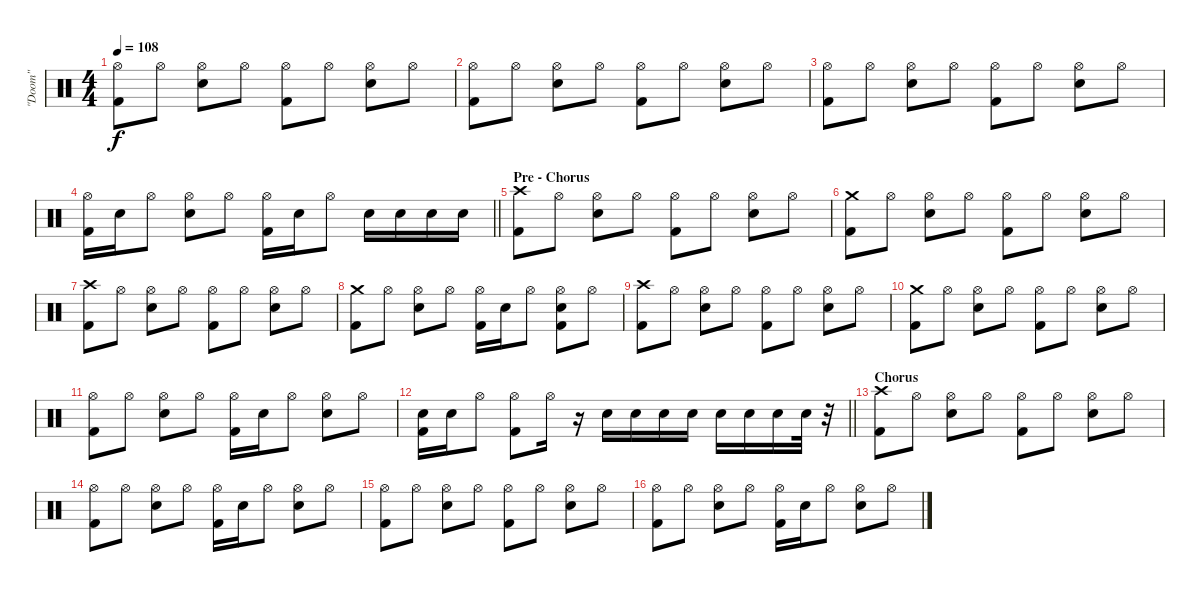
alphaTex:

\track ("\"Doom\"" "\"Doom\"") {instrument percussion}
\staff {score}
\articulation defaults
\ts (4 4)
\tempo 108
\clef neutral
\ks c
("Hi-Hat (open)" "Kick (hit) 2").8{dy f} "Hi-Hat (open)".8 ("Hi-Hat (open)" "Snare (hit) 2").8 "Hi-Hat (open)".8 ("Hi-Hat (open)" "Kick (hit) 2").8 "Hi-Hat (open)".8 ("Hi-Hat (open)" "Snare (hit) 2").8 "Hi-Hat (open)".8 |
("Hi-Hat (open)" "Kick (hit) 2").8 "Hi-Hat (open)".8 ("Hi-Hat (open)" "Snare (hit) 2").8 "Hi-Hat (open)".8 ("Hi-Hat (open)" "Kick (hit) 2").8 "Hi-Hat (open)".8 ("Hi-Hat (open)" "Snare (hit) 2").8 "Hi-Hat (open)".8 |
("Hi-Hat (open)" "Kick (hit) 2").8 "Hi-Hat (open)".8 ("Hi-Hat (open)" "Snare (hit) 2").8 "Hi-Hat (open)".8 ("Hi-Hat (open)" "Kick (hit) 2").8 "Hi-Hat (open)".8 ("Hi-Hat (open)" "Snare (hit) 2").8 "Hi-Hat (open)".8 |
\barLineRight lightlight
("Hi-Hat (open)" "Kick (hit) 2").16 "Snare (hit) 2".16 "Hi-Hat (open)".8 ("Hi-Hat (open)" "Snare (hit) 2").8 "Hi-Hat (open)".8 ("Hi-Hat (open)" "Kick (hit) 2").16 "Snare (hit) 2".16 "Hi-Hat (open)".8 "Snare (hit) 2".16 "Snare (hit) 2".16 "Snare (hit) 2".16 "Snare (hit) 2".16 |
\section ("" "Pre - Chorus")
("Crash high (hit)" "Kick (hit) 2").8 "Hi-Hat (open)".8 ("Hi-Hat (open)" "Snare (hit) 2").8 "Hi-Hat (open)".8 ("Hi-Hat (open)" "Kick (hit) 2").8 "Hi-Hat (open)".8 ("Hi-Hat (open)" "Snare (hit) 2").8 "Hi-Hat (open)".8 |
("Crash medium (hit)" "Kick (hit) 2").8 "Hi-Hat (open)".8 ("Hi-Hat (open)" "Snare (hit) 2").8 "Hi-Hat (open)".8 ("Hi-Hat (open)" "Kick (hit) 2").8 "Hi-Hat (open)".8 ("Hi-Hat (open)" "Snare (hit) 2").8 "Hi-Hat (open)".8 |
("Crash high (hit)" "Kick (hit) 2").8 "Hi-Hat (open)".8 ("Hi-Hat (open)" "Snare (hit) 2").8 "Hi-Hat (open)".8 ("Hi-Hat (open)" "Kick (hit) 2").8 "Hi-Hat (open)".8 ("Hi-Hat (open)" "Snare (hit) 2").8 "Hi-Hat (open)".8 |
("Crash medium (hit)" "Kick (hit) 2").8 "Hi-Hat (open)".8 ("Hi-Hat (open)" "Snare (hit) 2").8 "Hi-Hat (open)".8 ("Hi-Hat (open)" "Kick (hit) 2").16 "Snare (hit) 2".16 "Hi-Hat (open)".8 ("Hi-Hat (open)" "Snare (hit) 2" "Kick (hit) 2").8 "Hi-Hat (open)".8 |
("Crash high (hit)" "Kick (hit) 2").8 "Hi-Hat (open)".8 ("Hi-Hat (open)" "Snare (hit) 2").8 "Hi-Hat (open)".8 ("Hi-Hat (open)" "Kick (hit) 2").8 "Hi-Hat (open)".8 ("Hi-Hat (open)" "Snare (hit) 2").8 "Hi-Hat (open)".8 |
("Crash medium (hit)" "Kick (hit) 2").8 "Hi-Hat (open)".8 ("Hi-Hat (open)" "Snare (hit) 2").8 "Hi-Hat (open)".8 ("Hi-Hat (open)" "Kick (hit) 2").8 "Hi-Hat (open)".8 ("Hi-Hat (open)" "Snare (hit) 2").8 "Hi-Hat (open)".8 |
("Hi-Hat (open)" "Kick (hit) 2").8 "Hi-Hat (open)".8 ("Hi-Hat (open)" "Snare (hit) 2").8 "Hi-Hat (open)".8 ("Hi-Hat (open)" "Kick (hit) 2").16 "Snare (hit) 2".16 "Hi-Hat (open)".8 ("Hi-Hat (open)" "Snare (hit) 2").8 "Hi-Hat (open)".8 |
\barLineRight lightlight
("Snare (hit) 2" "Kick (hit) 2").16 "Snare (hit) 2".16 "Hi-Hat (open)".8 ("Hi-Hat (open)" "Kick (hit) 2").8 "Hi-Hat (open)".16 r.16 "Snare (hit) 2".16 "Snare (hit) 2".16 "Snare (hit) 2".16 "Snare (hit) 2".16 "Snare (hit) 2".16 "Snare (hit) 2".16 "Snare (hit) 2".16 "Snare (hit) 2".32 r.32 |
\section ("" "Chorus")
("Crash high (hit)" "Kick (hit) 2").8 "Hi-Hat (open)".8 ("Hi-Hat (open)" "Snare (hit) 2").8 "Hi-Hat (open)".8 ("Hi-Hat (open)" "Kick (hit) 2").8 "Hi-Hat (open)".8 ("Hi-Hat (open)" "Snare (hit) 2").8 "Hi-Hat (open)".8 |
("Hi-Hat (open)" "Kick (hit) 2").8 "Hi-Hat (open)".8 ("Hi-Hat (open)" "Snare (hit) 2").8 "Hi-Hat (open)".8 ("Hi-Hat (open)" "Kick (hit) 2").16 "Snare (hit) 2".16 "Hi-Hat (open)".8 ("Hi-Hat (open)" "Snare (hit) 2").8 "Hi-Hat (open)".8 |
("Hi-Hat (open)" "Kick (hit) 2").8 "Hi-Hat (open)".8 ("Hi-Hat (open)" "Snare (hit) 2").8 "Hi-Hat (open)".8 ("Hi-Hat (open)" "Kick (hit) 2").8 "Hi-Hat (open)".8 ("Hi-Hat (open)" "Snare (hit) 2").8 "Hi-Hat (open)".8 |
("Hi-Hat (open)" "Kick (hit) 2").8 "Hi-Hat (open)".8 ("Hi-Hat (open)" "Snare (hit) 2").8 "Hi-Hat (open)".8 ("Hi-Hat (open)" "Kick (hit) 2").16 "Snare (hit) 2".16 "Hi-Hat (open)".8 ("Hi-Hat (open)" "Snare (hit) 2").8 "Hi-Hat (open)".8
